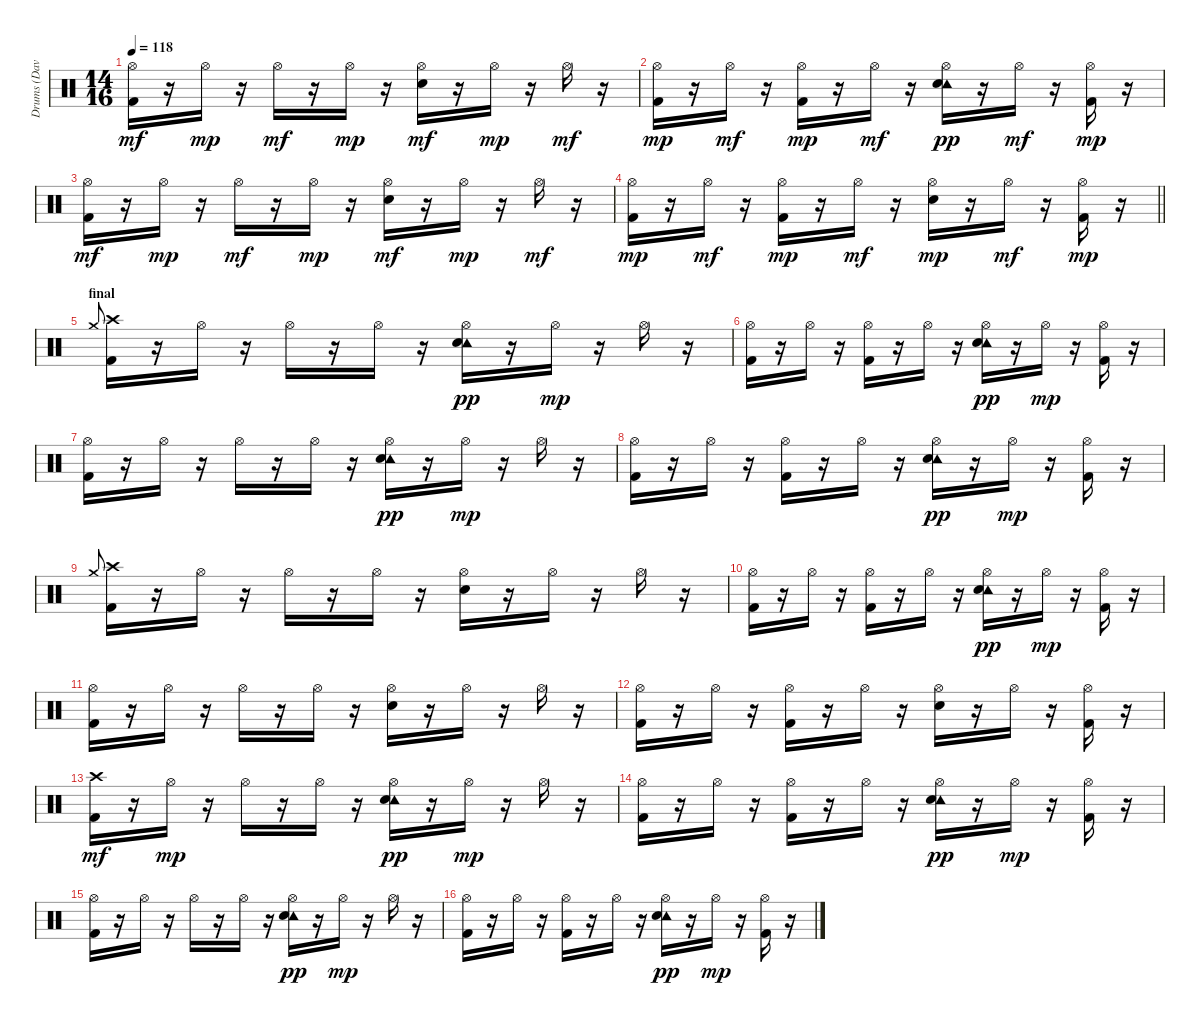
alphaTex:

\track ("Drums (Dave Turncrantz)" "Drums (Dav") {instrument percussion}
\staff {score}
\articulation defaults
\ts (14 16)
\tempo 118
\clef neutral
\ks c
("Hi-Hat (open)" "Kick (hit) 2").16{dy mf} r.16 "Hi-Hat (open)".16{dy mp} r.16 "Hi-Hat (open)".16{dy mf} r.16 "Hi-Hat (open)".16{dy mp} r.16 ("Hi-Hat (open)" "Snare (hit) 2").16{dy mf} r.16 "Hi-Hat (open)".16{dy mp} r.16 "Hi-Hat (open)".16{dy mf} r.16 |
("Hi-Hat (open)" "Kick (hit) 2").16{dy mp} r.16 "Hi-Hat (open)".16{dy mf} r.16 ("Hi-Hat (open)" "Kick (hit) 2").16{dy mp} r.16 "Hi-Hat (open)".16{dy mf} r.16 ("Hi-Hat (open)" "Tambourine (hit)" "Snare (hit) 2").16{dy pp} r.16 "Hi-Hat (open)".16{dy mf} r.16 ("Hi-Hat (open)" "Kick (hit) 2").16{dy mp} r.16 |
("Hi-Hat (open)" "Kick (hit) 2").16{dy mf} r.16 "Hi-Hat (open)".16{dy mp} r.16 "Hi-Hat (open)".16{dy mf} r.16 "Hi-Hat (open)".16{dy mp} r.16 ("Hi-Hat (open)" "Snare (hit) 2").16{dy mf} r.16 "Hi-Hat (open)".16{dy mp} r.16 "Hi-Hat (open)".16{dy mf} r.16 |
\barLineRight lightlight
("Hi-Hat (open)" "Kick (hit) 2").16{dy mp} r.16 "Hi-Hat (open)".16{dy mf} r.16 ("Hi-Hat (open)" "Kick (hit) 2").16{dy mp} r.16 "Hi-Hat (open)".16{dy mf} r.16 ("Hi-Hat (open)" "Snare (hit) 2").16{dy mp} r.16 "Hi-Hat (open)".16{dy mf} r.16 ("Hi-Hat (open)" "Kick (hit) 2").16{dy mp} r.16 |
\section ("" "final")
"Crash medium (hit)".8{gr onbeat} ("Crash high (hit)" "Kick (hit) 2").16 r.16 "Hi-Hat (open)".16 r.16 "Hi-Hat (open)".16 r.16 "Hi-Hat (open)".16 r.16 ("Hi-Hat (open)" "Tambourine (hit)" "Snare (hit) 2").16{dy pp} r.16 "Hi-Hat (open)".16{dy mp} r.16 "Hi-Hat (open)".16 r.16 |
("Hi-Hat (open)" "Kick (hit) 2").16 r.16 "Hi-Hat (open)".16 r.16 ("Hi-Hat (open)" "Kick (hit) 2").16 r.16 "Hi-Hat (open)".16 r.16 ("Hi-Hat (open)" "Tambourine (hit)" "Snare (hit) 2").16{dy pp} r.16 "Hi-Hat (open)".16{dy mp} r.16 ("Hi-Hat (open)" "Kick (hit) 2").16 r.16 |
("Hi-Hat (open)" "Kick (hit) 2").16 r.16 "Hi-Hat (open)".16 r.16 "Hi-Hat (open)".16 r.16 "Hi-Hat (open)".16 r.16 ("Hi-Hat (open)" "Tambourine (hit)" "Snare (hit) 2").16{dy pp} r.16 "Hi-Hat (open)".16{dy mp} r.16 "Hi-Hat (open)".16 r.16 |
("Hi-Hat (open)" "Kick (hit) 2").16 r.16 "Hi-Hat (open)".16 r.16 ("Hi-Hat (open)" "Kick (hit) 2").16 r.16 "Hi-Hat (open)".16 r.16 ("Hi-Hat (open)" "Tambourine (hit)" "Snare (hit) 2").16{dy pp} r.16 "Hi-Hat (open)".16{dy mp} r.16 ("Hi-Hat (open)" "Kick (hit) 2").16 r.16 |
"Crash medium (hit)".8{gr onbeat} ("Crash high (hit)" "Kick (hit) 2").16 r.16 "Hi-Hat (open)".16 r.16 "Hi-Hat (open)".16 r.16 "Hi-Hat (open)".16 r.16 ("Hi-Hat (open)" "Snare (hit) 2").16 r.16 "Hi-Hat (open)".16 r.16 "Hi-Hat (open)".16 r.16 |
("Hi-Hat (open)" "Kick (hit) 2").16 r.16 "Hi-Hat (open)".16 r.16 ("Hi-Hat (open)" "Kick (hit) 2").16 r.16 "Hi-Hat (open)".16 r.16 ("Hi-Hat (open)" "Tambourine (hit)" "Snare (hit) 2").16{dy pp} r.16 "Hi-Hat (open)".16{dy mp} r.16 ("Hi-Hat (open)" "Kick (hit) 2").16 r.16 |
("Hi-Hat (open)" "Kick (hit) 2").16 r.16 "Hi-Hat (open)".16 r.16 "Hi-Hat (open)".16 r.16 "Hi-Hat (open)".16 r.16 ("Hi-Hat (open)" "Snare (hit) 2").16 r.16 "Hi-Hat (open)".16 r.16 "Hi-Hat (open)".16 r.16 |
("Hi-Hat (open)" "Kick (hit) 2").16 r.16 "Hi-Hat (open)".16 r.16 ("Hi-Hat (open)" "Kick (hit) 2").16 r.16 "Hi-Hat (open)".16 r.16 ("Hi-Hat (open)" "Snare (hit) 2").16 r.16 "Hi-Hat (open)".16 r.16 ("Hi-Hat (open)" "Kick (hit) 2").16 r.16 |
("Crash high (hit)" "Kick (hit) 2").16{dy mf} r.16 "Hi-Hat (open)".16{dy mp} r.16 "Hi-Hat (open)".16 r.16 "Hi-Hat (open)".16 r.16 ("Hi-Hat (open)" "Tambourine (hit)" "Snare (hit) 2").16{dy pp} r.16 "Hi-Hat (open)".16{dy mp} r.16 "Hi-Hat (open)".16 r.16 |
("Hi-Hat (open)" "Kick (hit) 2").16 r.16 "Hi-Hat (open)".16 r.16 ("Hi-Hat (open)" "Kick (hit) 2").16 r.16 "Hi-Hat (open)".16 r.16 ("Hi-Hat (open)" "Tambourine (hit)" "Snare (hit) 2").16{dy pp} r.16 "Hi-Hat (open)".16{dy mp} r.16 ("Hi-Hat (open)" "Kick (hit) 2").16 r.16 |
("Hi-Hat (open)" "Kick (hit) 2").16 r.16 "Hi-Hat (open)".16 r.16 "Hi-Hat (open)".16 r.16 "Hi-Hat (open)".16 r.16 ("Hi-Hat (open)" "Tambourine (hit)" "Snare (hit) 2").16{dy pp} r.16 "Hi-Hat (open)".16{dy mp} r.16 "Hi-Hat (open)".16 r.16 |
("Hi-Hat (open)" "Kick (hit) 2").16 r.16 "Hi-Hat (open)".16 r.16 ("Hi-Hat (open)" "Kick (hit) 2").16 r.16 "Hi-Hat (open)".16 r.16 ("Hi-Hat (open)" "Tambourine (hit)" "Snare (hit) 2").16{dy pp} r.16 "Hi-Hat (open)".16{dy mp} r.16 ("Hi-Hat (open)" "Kick (hit) 2").16 r.16
